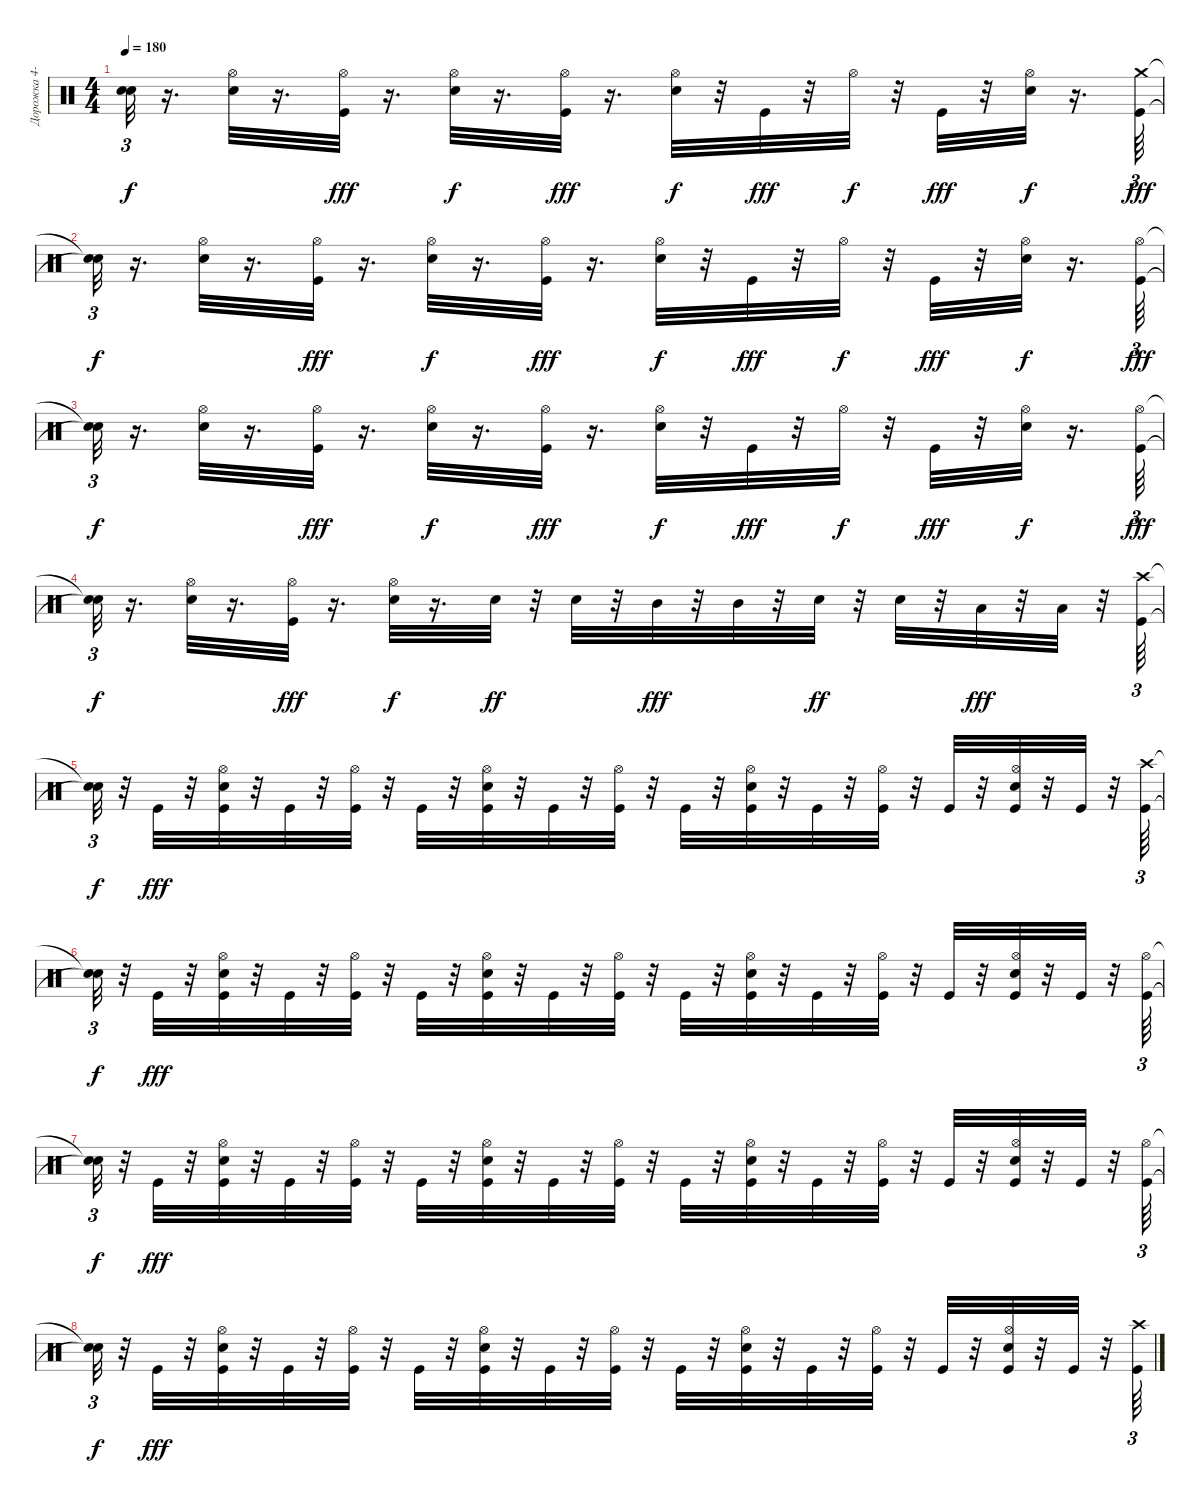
\track ("Дорожка 4-10-11" "Дорожка 4-") {instrument percussion}
\staff {score}
\articulation defaults
\ts (4 4)
\tempo 180
\clef neutral
\ks c
("Snare (hit)"{t} "Snare (hit)"{t}).32{tu (3 2) dy f} r.16{d} ("Hi-Hat (open)" "Snare (hit) 2").32 r.16{d} ("Hi-Hat (open)" "Kick (hit)").32{dy fff} r.16{d} ("Hi-Hat (open)" "Snare (hit) 2").32{dy f} r.16{d} ("Hi-Hat (open)" "Kick (hit)").32{dy fff} r.16{d} ("Hi-Hat (open)" "Snare (hit) 2").32{dy f} r.32 "Kick (hit)".32{dy fff} r.32 "Hi-Hat (open)".32{dy f} r.32 "Kick (hit)".32{dy fff} r.32 ("Hi-Hat (open)" "Snare (hit) 2").32{dy f} r.16{d} ("Crash medium (hit)" "Kick (hit)").64{tu (3 2) dy fff} |
("Snare (hit)"{t} "Snare (hit)"{t}).32{tu (3 2) dy f} r.16{d} ("Hi-Hat (open)" "Snare (hit) 2").32 r.16{d} ("Hi-Hat (open)" "Kick (hit)").32{dy fff} r.16{d} ("Hi-Hat (open)" "Snare (hit) 2").32{dy f} r.16{d} ("Hi-Hat (open)" "Kick (hit)").32{dy fff} r.16{d} ("Hi-Hat (open)" "Snare (hit) 2").32{dy f} r.32 "Kick (hit)".32{dy fff} r.32 "Hi-Hat (open)".32{dy f} r.32 "Kick (hit)".32{dy fff} r.32 ("Hi-Hat (open)" "Snare (hit) 2").32{dy f} r.16{d} ("Hi-Hat (open)" "Kick (hit)").64{tu (3 2) dy fff} |
("Snare (hit)"{t} "Snare (hit)"{t}).32{tu (3 2) dy f} r.16{d} ("Hi-Hat (open)" "Snare (hit) 2").32 r.16{d} ("Hi-Hat (open)" "Kick (hit)").32{dy fff} r.16{d} ("Hi-Hat (open)" "Snare (hit) 2").32{dy f} r.16{d} ("Hi-Hat (open)" "Kick (hit)").32{dy fff} r.16{d} ("Hi-Hat (open)" "Snare (hit) 2").32{dy f} r.32 "Kick (hit)".32{dy fff} r.32 "Hi-Hat (open)".32{dy f} r.32 "Kick (hit)".32{dy fff} r.32 ("Hi-Hat (open)" "Snare (hit) 2").32{dy f} r.16{d} ("Hi-Hat (open)" "Kick (hit)").64{tu (3 2) dy fff} |
("Snare (hit)"{t} "Snare (hit)"{t}).32{tu (3 2) dy f} r.16{d} ("Snare (hit) 2" "Hi-Hat (open)").32 r.16{d} ("Hi-Hat (open)" "Kick (hit)").32{dy fff} r.16{d} ("Snare (hit) 2" "Hi-Hat (open)").32{dy f} r.16{d} "Snare (hit) 2".32{dy ff} r.32 "Snare (hit) 2".32 r.32 "Mid Tom (hit)".32{dy fff} r.32 "Mid Tom (hit)".32 r.32 "Snare (hit) 2".32{dy ff} r.32 "Snare (hit) 2".32 r.32 "Low Tom (hit)".32{dy fff} r.32 "Low Tom (hit)".32 r.32 ("Crash high (hit)" "Kick (hit)").64{tu (3 2)} |
("Snare (hit)"{t} "Snare (hit)"{t}).32{tu (3 2) dy f} r.32 "Kick (hit)".32{dy fff} r.32 ("Hi-Hat (open)" "Snare (hit) 2" "Kick (hit)").32 r.32 "Kick (hit)".32 r.32 ("Hi-Hat (open)" "Kick (hit)").32 r.32 "Kick (hit)".32 r.32 ("Hi-Hat (open)" "Snare (hit) 2" "Kick (hit)").32 r.32 "Kick (hit)".32 r.32 ("Hi-Hat (open)" "Kick (hit)").32 r.32 "Kick (hit)".32 r.32 ("Hi-Hat (open)" "Snare (hit) 2" "Kick (hit)").32 r.32 "Kick (hit)".32 r.32 ("Hi-Hat (open)" "Kick (hit)").32 r.32 "Kick (hit)".32 r.32 ("Hi-Hat (open)" "Snare (hit) 2" "Kick (hit)").32 r.32 "Kick (hit)".32 r.32 ("Crash high (hit)" "Kick (hit)").64{tu (3 2)} |
("Snare (hit)"{t} "Snare (hit)"{t}).32{tu (3 2) dy f} r.32 "Kick (hit)".32{dy fff} r.32 ("Hi-Hat (open)" "Snare (hit) 2" "Kick (hit)").32 r.32 "Kick (hit)".32 r.32 ("Hi-Hat (open)" "Kick (hit)").32 r.32 "Kick (hit)".32 r.32 ("Hi-Hat (open)" "Snare (hit) 2" "Kick (hit)").32 r.32 "Kick (hit)".32 r.32 ("Hi-Hat (open)" "Kick (hit)").32 r.32 "Kick (hit)".32 r.32 ("Hi-Hat (open)" "Snare (hit) 2" "Kick (hit)").32 r.32 "Kick (hit)".32 r.32 ("Hi-Hat (open)" "Kick (hit)").32 r.32 "Kick (hit)".32 r.32 ("Hi-Hat (open)" "Snare (hit) 2" "Kick (hit)").32 r.32 "Kick (hit)".32 r.32 ("Hi-Hat (open)" "Kick (hit)").64{tu (3 2)} |
("Snare (hit)"{t} "Snare (hit)"{t}).32{tu (3 2) dy f} r.32 "Kick (hit)".32{dy fff} r.32 ("Hi-Hat (open)" "Snare (hit) 2" "Kick (hit)").32 r.32 "Kick (hit)".32 r.32 ("Hi-Hat (open)" "Kick (hit)").32 r.32 "Kick (hit)".32 r.32 ("Hi-Hat (open)" "Snare (hit) 2" "Kick (hit)").32 r.32 "Kick (hit)".32 r.32 ("Hi-Hat (open)" "Kick (hit)").32 r.32 "Kick (hit)".32 r.32 ("Hi-Hat (open)" "Snare (hit) 2" "Kick (hit)").32 r.32 "Kick (hit)".32 r.32 ("Hi-Hat (open)" "Kick (hit)").32 r.32 "Kick (hit)".32 r.32 ("Hi-Hat (open)" "Snare (hit) 2" "Kick (hit)").32 r.32 "Kick (hit)".32 r.32 ("Hi-Hat (open)" "Kick (hit)").64{tu (3 2)} |
("Snare (hit)"{t} "Snare (hit)"{t}).32{tu (3 2) dy f} r.32 "Kick (hit)".32{dy fff} r.32 ("Hi-Hat (open)" "Snare (hit) 2" "Kick (hit)").32 r.32 "Kick (hit)".32 r.32 ("Hi-Hat (open)" "Kick (hit)").32 r.32 "Kick (hit)".32 r.32 ("Hi-Hat (open)" "Snare (hit) 2" "Kick (hit)").32 r.32 "Kick (hit)".32 r.32 ("Hi-Hat (open)" "Kick (hit)").32 r.32 "Kick (hit)".32 r.32 ("Hi-Hat (open)" "Snare (hit) 2" "Kick (hit)").32 r.32 "Kick (hit)".32 r.32 ("Hi-Hat (open)" "Kick (hit)").32 r.32 "Kick (hit)".32 r.32 ("Hi-Hat (open)" "Snare (hit) 2" "Kick (hit)").32 r.32 "Kick (hit)".32 r.32 ("Crash high (hit)" "Kick (hit)").64{tu (3 2)}
